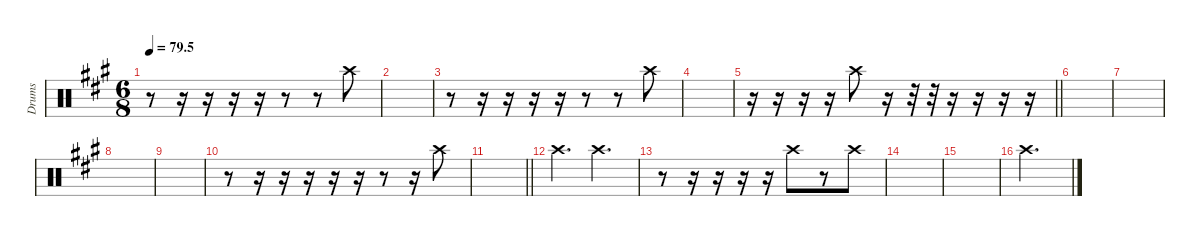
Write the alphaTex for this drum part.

\defaultSystemsLayout 4
\hideDynamics
\bracketExtendMode nobrackets
\otherSystemsTrackNameOrientation horizontal
\track ("Left crash" "Drums") {instrument percussion}
\staff {score}
\articulation defaults
\ts (6 8)
\tempo
79.5
\accidentals auto
\clef neutral
\ottava regular
\simile none
\scale
0.333333
\ks a
r.8{dy f} r.16 r.16 r.16 r.16 r.8 r.8 "Crash high (hit)"{acc forcenatural}.8 |
\scale
0.333333 |
\scale
0.333333 r.8 r.16 r.16 r.16 r.16 r.8 r.8 "Crash high (hit)"{acc forcenatural}.8 |
\scale
0.333333 |
\scale
0.333333
\barLineRight lightlight
r.16 r.16 r.16 r.16 "Crash high (hit)"{acc forcenatural}.8 r.16 r.32 r.32 r.16 r.16 r.16 r.16 |
\scale
0.333333 |
\scale
0.333333 |
\scale
0.333333 |
\scale
0.333333 |
\scale
0.333333 r.8 r.16 r.16 r.16 r.16 r.16 r.8 r.16 "Crash high (hit)"{acc forcenatural}.8 |
\scale
0.333333
\barLineRight lightlight
|
\scale
0.333333 "Crash high (hit)"{acc forcenatural}.4{d} "Crash high (hit)"{acc forcenatural}.4{d} |
\scale
0.333333 r.8 r.16 r.16 r.16 r.16 "Crash high (hit)"{acc forcenatural}.8 r.8 "Crash high (hit)"{acc forcenatural}.8 |
\scale
0.333333 |
\scale
0.333333 |
\scale
0.333333 "Crash high (hit)"{acc forcenatural}.2{d}
